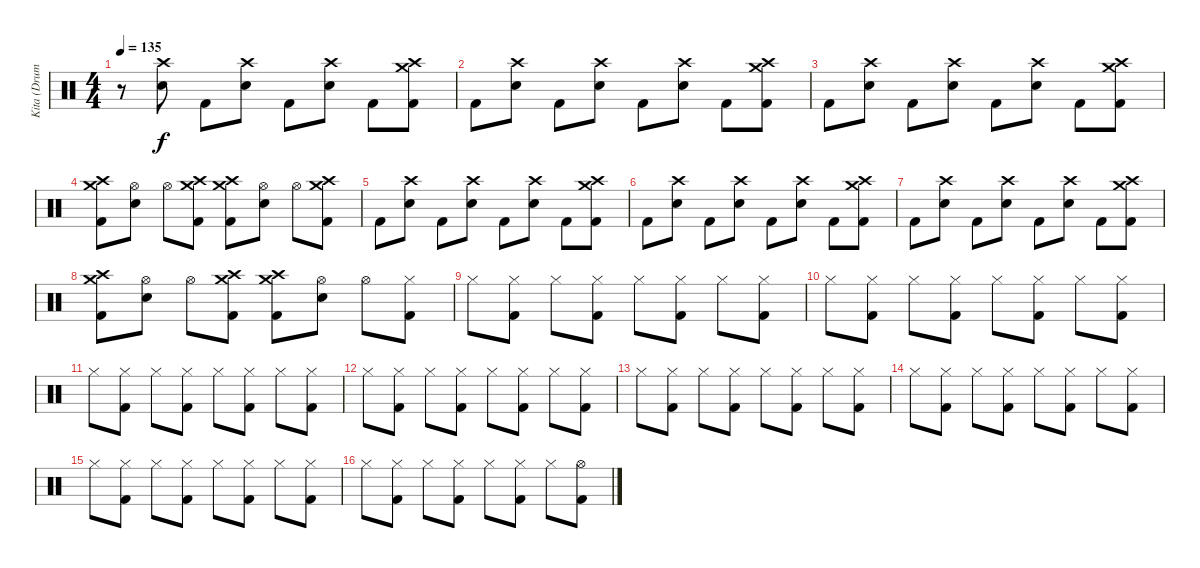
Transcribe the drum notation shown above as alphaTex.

\track ("Kita (Drums)" "Kita (Drum") {instrument percussion}
\staff {score}
\articulation defaults
\ts (4 4)
\tempo 135
\clef neutral
\ks c
r.8{dy f} ("Crash high (hit)" "Electric Snare (hit)").8 "Kick (hit) 2".8 ("Crash high (hit)" "Electric Snare (hit)").8 "Kick (hit) 2".8 ("Crash high (hit)" "Electric Snare (hit)").8 "Kick (hit) 2".8 ("Crash medium (hit)" "Crash high (hit)" "Kick (hit) 2").8 |
"Kick (hit) 2".8 ("Crash high (hit)" "Electric Snare (hit)").8 "Kick (hit) 2".8 ("Crash high (hit)" "Electric Snare (hit)").8 "Kick (hit) 2".8 ("Crash high (hit)" "Electric Snare (hit)").8 "Kick (hit) 2".8 ("Crash medium (hit)" "Crash high (hit)" "Kick (hit) 2").8 |
"Kick (hit) 2".8 ("Crash high (hit)" "Electric Snare (hit)").8 "Kick (hit) 2".8 ("Crash high (hit)" "Electric Snare (hit)").8 "Kick (hit) 2".8 ("Crash high (hit)" "Electric Snare (hit)").8 "Kick (hit) 2".8 ("Crash medium (hit)" "Crash high (hit)" "Kick (hit) 2").8 |
("Crash medium (hit)" "Crash high (hit)" "Kick (hit) 2").8 ("Hi-Hat (open)" "Electric Snare (hit)").8 "Hi-Hat (open)".8 ("Crash medium (hit)" "Crash high (hit)" "Kick (hit) 2").8 ("Crash medium (hit)" "Crash high (hit)" "Kick (hit) 2").8 ("Hi-Hat (open)" "Electric Snare (hit)").8 "Hi-Hat (open)".8 ("Crash medium (hit)" "Crash high (hit)" "Kick (hit) 2").8 |
"Kick (hit) 2".8 ("Crash high (hit)" "Electric Snare (hit)").8 "Kick (hit) 2".8 ("Crash high (hit)" "Electric Snare (hit)").8 "Kick (hit) 2".8 ("Crash high (hit)" "Electric Snare (hit)").8 "Kick (hit) 2".8 ("Crash medium (hit)" "Crash high (hit)" "Kick (hit) 2").8 |
"Kick (hit) 2".8 ("Crash high (hit)" "Electric Snare (hit)").8 "Kick (hit) 2".8 ("Crash high (hit)" "Electric Snare (hit)").8 "Kick (hit) 2".8 ("Crash high (hit)" "Electric Snare (hit)").8 "Kick (hit) 2".8 ("Crash medium (hit)" "Crash high (hit)" "Kick (hit) 2").8 |
"Kick (hit) 2".8 ("Crash high (hit)" "Electric Snare (hit)").8 "Kick (hit) 2".8 ("Crash high (hit)" "Electric Snare (hit)").8 "Kick (hit) 2".8 ("Crash high (hit)" "Electric Snare (hit)").8 "Kick (hit) 2".8 ("Crash medium (hit)" "Crash high (hit)" "Kick (hit) 2").8 |
("Crash medium (hit)" "Crash high (hit)" "Kick (hit) 2").8 ("Hi-Hat (open)" "Electric Snare (hit)").8 "Hi-Hat (open)".8 ("Crash medium (hit)" "Crash high (hit)" "Kick (hit) 2").8 ("Crash medium (hit)" "Crash high (hit)" "Kick (hit) 2").8 ("Hi-Hat (open)" "Electric Snare (hit)").8 "Hi-Hat (open)".8 ("Hi-Hat (closed)" "Kick (hit) 2").8 |
"Hi-Hat (closed)".8 ("Hi-Hat (closed)" "Kick (hit) 2").8 "Hi-Hat (closed)".8 ("Hi-Hat (closed)" "Kick (hit) 2").8 "Hi-Hat (closed)".8 ("Hi-Hat (closed)" "Kick (hit) 2").8 "Hi-Hat (closed)".8 ("Hi-Hat (closed)" "Kick (hit) 2").8 |
"Hi-Hat (closed)".8 ("Hi-Hat (closed)" "Kick (hit) 2").8 "Hi-Hat (closed)".8 ("Hi-Hat (closed)" "Kick (hit) 2").8 "Hi-Hat (closed)".8 ("Hi-Hat (closed)" "Kick (hit) 2").8 "Hi-Hat (closed)".8 ("Hi-Hat (closed)" "Kick (hit) 2").8 |
"Hi-Hat (closed)".8 ("Hi-Hat (closed)" "Kick (hit) 2").8 "Hi-Hat (closed)".8 ("Hi-Hat (closed)" "Kick (hit) 2").8 "Hi-Hat (closed)".8 ("Hi-Hat (closed)" "Kick (hit) 2").8 "Hi-Hat (closed)".8 ("Hi-Hat (closed)" "Kick (hit) 2").8 |
"Hi-Hat (closed)".8 ("Hi-Hat (closed)" "Kick (hit) 2").8 "Hi-Hat (closed)".8 ("Hi-Hat (closed)" "Kick (hit) 2").8 "Hi-Hat (closed)".8 ("Hi-Hat (closed)" "Kick (hit) 2").8 "Hi-Hat (closed)".8 ("Hi-Hat (closed)" "Kick (hit) 2").8 |
"Hi-Hat (closed)".8 ("Hi-Hat (closed)" "Kick (hit) 2").8 "Hi-Hat (closed)".8 ("Hi-Hat (closed)" "Kick (hit) 2").8 "Hi-Hat (closed)".8 ("Hi-Hat (closed)" "Kick (hit) 2").8 "Hi-Hat (closed)".8 ("Hi-Hat (closed)" "Kick (hit) 2").8 |
"Hi-Hat (closed)".8 ("Hi-Hat (closed)" "Kick (hit) 2").8 "Hi-Hat (closed)".8 ("Hi-Hat (closed)" "Kick (hit) 2").8 "Hi-Hat (closed)".8 ("Hi-Hat (closed)" "Kick (hit) 2").8 "Hi-Hat (closed)".8 ("Hi-Hat (closed)" "Kick (hit) 2").8 |
"Hi-Hat (closed)".8 ("Hi-Hat (closed)" "Kick (hit) 2").8 "Hi-Hat (closed)".8 ("Hi-Hat (closed)" "Kick (hit) 2").8 "Hi-Hat (closed)".8 ("Hi-Hat (closed)" "Kick (hit) 2").8 "Hi-Hat (closed)".8 ("Hi-Hat (closed)" "Kick (hit) 2").8 |
"Hi-Hat (closed)".8 ("Hi-Hat (closed)" "Kick (hit) 2").8 "Hi-Hat (closed)".8 ("Hi-Hat (closed)" "Kick (hit) 2").8 "Hi-Hat (closed)".8 ("Hi-Hat (closed)" "Kick (hit) 2").8 "Hi-Hat (closed)".8 ("Hi-Hat (open)" "Kick (hit) 2").8
